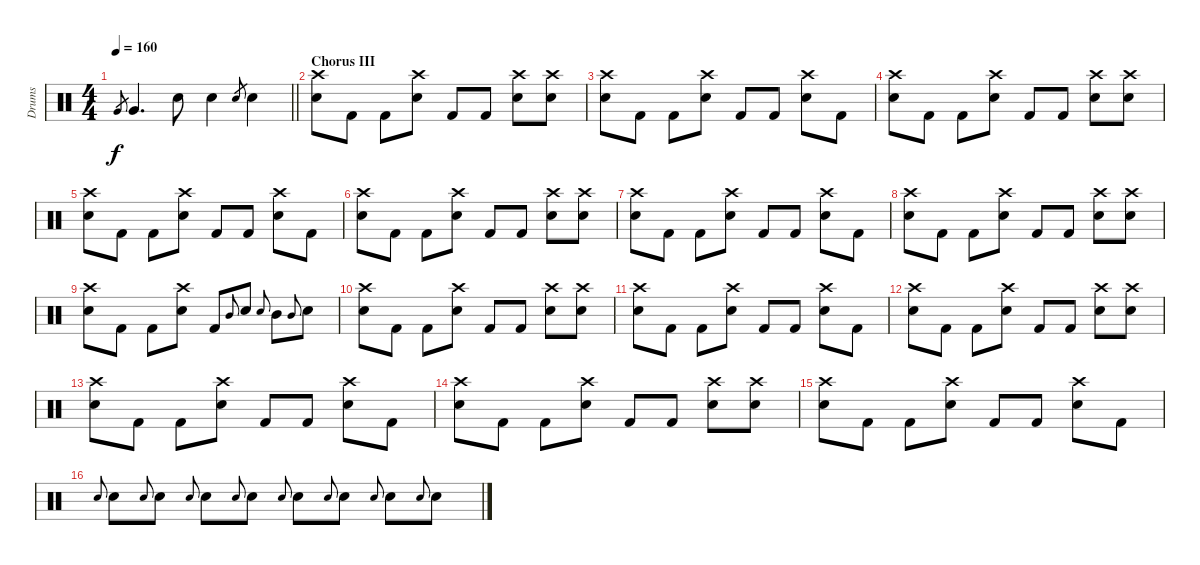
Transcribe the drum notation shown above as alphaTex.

\track ("Drums" "Drums") {instrument percussion}
\staff {score}
\articulation defaults
\ts (4 4)
\tempo 160
\clef neutral
\barLineRight lightlight
\ks c "Very Low Tom (hit)".8{gr dy f} "Very Low Tom (hit)".4{d} "Electric Snare (hit)".8 "Electric Snare (hit)".4 "Electric Snare (hit)".8{gr} "Electric Snare (hit)".4
|
\section ("" "Chorus III")
("Electric Snare (hit)" "Crash high (hit)").8 "Kick (hit) 2".8 "Kick (hit) 2".8 ("Electric Snare (hit)" "Crash high (hit)").8 "Kick (hit) 2".8 "Kick (hit) 2".8 ("Electric Snare (hit)" "Crash high (hit)").8 ("Electric Snare (hit)" "Crash high (hit)").8 |
("Electric Snare (hit)" "Crash high (hit)").8 "Kick (hit) 2".8 "Kick (hit) 2".8 ("Electric Snare (hit)" "Crash high (hit)").8 "Kick (hit) 2".8 "Kick (hit) 2".8 ("Electric Snare (hit)" "Crash high (hit)").8 "Kick (hit) 2".8 |
("Electric Snare (hit)" "Crash high (hit)").8 "Kick (hit) 2".8 "Kick (hit) 2".8 ("Electric Snare (hit)" "Crash high (hit)").8 "Kick (hit) 2".8 "Kick (hit) 2".8 ("Electric Snare (hit)" "Crash high (hit)").8 ("Electric Snare (hit)" "Crash high (hit)").8 |
("Electric Snare (hit)" "Crash high (hit)").8 "Kick (hit) 2".8 "Kick (hit) 2".8 ("Electric Snare (hit)" "Crash high (hit)").8 "Kick (hit) 2".8 "Kick (hit) 2".8 ("Electric Snare (hit)" "Crash high (hit)").8 "Kick (hit) 2".8 |
("Electric Snare (hit)" "Crash high (hit)").8 "Kick (hit) 2".8 "Kick (hit) 2".8 ("Electric Snare (hit)" "Crash high (hit)").8 "Kick (hit) 2".8 "Kick (hit) 2".8 ("Electric Snare (hit)" "Crash high (hit)").8 ("Electric Snare (hit)" "Crash high (hit)").8 |
("Electric Snare (hit)" "Crash high (hit)").8 "Kick (hit) 2".8 "Kick (hit) 2".8 ("Electric Snare (hit)" "Crash high (hit)").8 "Kick (hit) 2".8 "Kick (hit) 2".8 ("Electric Snare (hit)" "Crash high (hit)").8 "Kick (hit) 2".8 |
("Electric Snare (hit)" "Crash high (hit)").8 "Kick (hit) 2".8 "Kick (hit) 2".8 ("Electric Snare (hit)" "Crash high (hit)").8 "Kick (hit) 2".8 "Kick (hit) 2".8 ("Electric Snare (hit)" "Crash high (hit)").8 ("Electric Snare (hit)" "Crash high (hit)").8 |
("Electric Snare (hit)" "Crash high (hit)").8 "Kick (hit) 2".8 "Kick (hit) 2".8 ("Electric Snare (hit)" "Crash high (hit)").8 "Kick (hit) 2".8 "Mid Tom (hit)".8{gr onbeat} "Electric Snare (hit)".8 "Electric Snare (hit)".8{gr onbeat} "Mid Tom (hit)".8 "Mid Tom (hit)".8{gr onbeat} "Electric Snare (hit)".8 |
("Electric Snare (hit)" "Crash high (hit)").8 "Kick (hit) 2".8 "Kick (hit) 2".8 ("Electric Snare (hit)" "Crash high (hit)").8 "Kick (hit) 2".8 "Kick (hit) 2".8 ("Electric Snare (hit)" "Crash high (hit)").8 ("Electric Snare (hit)" "Crash high (hit)").8 |
("Electric Snare (hit)" "Crash high (hit)").8 "Kick (hit) 2".8 "Kick (hit) 2".8 ("Electric Snare (hit)" "Crash high (hit)").8 "Kick (hit) 2".8 "Kick (hit) 2".8 ("Electric Snare (hit)" "Crash high (hit)").8 "Kick (hit) 2".8 |
("Electric Snare (hit)" "Crash high (hit)").8 "Kick (hit) 2".8 "Kick (hit) 2".8 ("Electric Snare (hit)" "Crash high (hit)").8 "Kick (hit) 2".8 "Kick (hit) 2".8 ("Electric Snare (hit)" "Crash high (hit)").8 ("Electric Snare (hit)" "Crash high (hit)").8 |
("Electric Snare (hit)" "Crash high (hit)").8 "Kick (hit) 2".8 "Kick (hit) 2".8 ("Electric Snare (hit)" "Crash high (hit)").8 "Kick (hit) 2".8 "Kick (hit) 2".8 ("Electric Snare (hit)" "Crash high (hit)").8 "Kick (hit) 2".8 |
("Electric Snare (hit)" "Crash high (hit)").8 "Kick (hit) 2".8 "Kick (hit) 2".8 ("Electric Snare (hit)" "Crash high (hit)").8 "Kick (hit) 2".8 "Kick (hit) 2".8 ("Electric Snare (hit)" "Crash high (hit)").8 ("Electric Snare (hit)" "Crash high (hit)").8 |
("Electric Snare (hit)" "Crash high (hit)").8 "Kick (hit) 2".8 "Kick (hit) 2".8 ("Electric Snare (hit)" "Crash high (hit)").8 "Kick (hit) 2".8 "Kick (hit) 2".8 ("Electric Snare (hit)" "Crash high (hit)").8 "Kick (hit) 2".8 |
"Electric Snare (hit)".8{gr onbeat} "Electric Snare (hit)".8{volume 5} "Electric Snare (hit)".8{gr onbeat} "Electric Snare (hit)".8{volume 8} "Electric Snare (hit)".8{gr onbeat} "Electric Snare (hit)".8 "Electric Snare (hit)".8{gr onbeat} "Electric Snare (hit)".8 "Electric Snare (hit)".8{gr onbeat} "Electric Snare (hit)".8 "Electric Snare (hit)".8{gr onbeat} "Electric Snare (hit)".8 "Electric Snare (hit)".8{gr onbeat} "Electric Snare (hit)".8 "Electric Snare (hit)".8{gr onbeat} "Electric Snare (hit)".8
